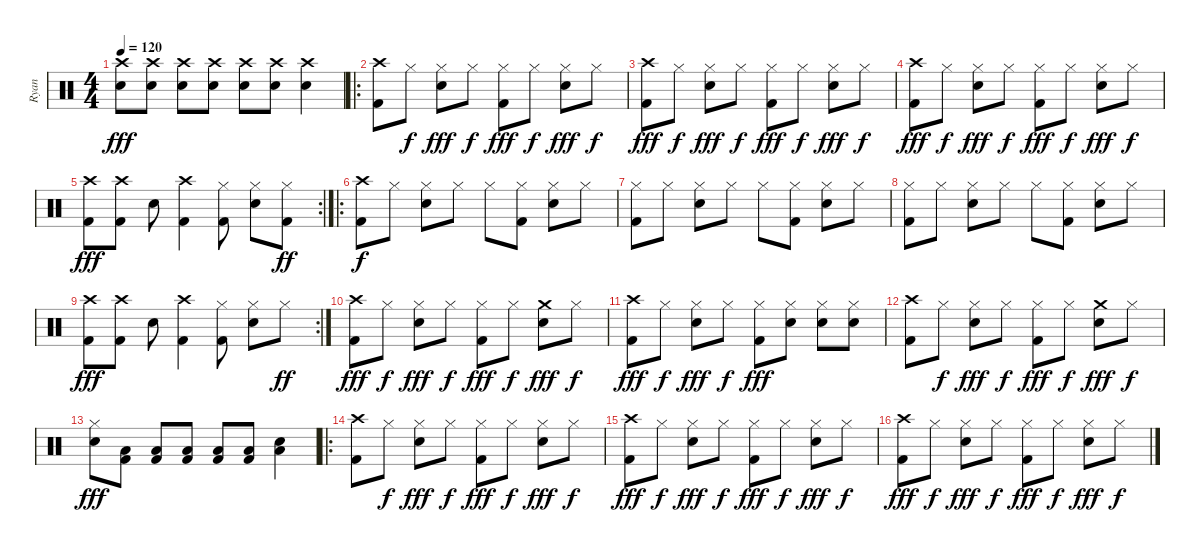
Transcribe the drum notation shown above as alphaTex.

\track ("Ryan" "Ryan") {instrument percussion}
\staff {score}
\articulation defaults
\ts (4 4)
\tempo 120
\clef neutral
\ks c
("Crash high (hit)" "Snare (hit) 2").8{dy fff} ("Crash high (hit)" "Snare (hit) 2").8 ("Crash high (hit)" "Snare (hit) 2").8 ("Crash high (hit)" "Snare (hit) 2").8 ("Crash high (hit)" "Snare (hit) 2").8 ("Crash high (hit)" "Snare (hit) 2").8 ("Crash high (hit)" "Snare (hit) 2").4 |
\ro
("Crash high (hit)" "Kick (hit) 2").8 "Hi-Hat (closed)".8{dy f} ("Hi-Hat (closed)" "Snare (hit) 2").8{dy fff} "Hi-Hat (closed)".8{dy f} ("Hi-Hat (closed)" "Kick (hit) 2").8{dy fff} "Hi-Hat (closed)".8{dy f} ("Hi-Hat (closed)" "Snare (hit) 2").8{dy fff} "Hi-Hat (closed)".8{dy f} |
("Crash high (hit)" "Kick (hit) 2").8{dy fff} "Hi-Hat (closed)".8{dy f} ("Hi-Hat (closed)" "Snare (hit) 2").8{dy fff} "Hi-Hat (closed)".8{dy f} ("Hi-Hat (closed)" "Kick (hit) 2").8{dy fff} "Hi-Hat (closed)".8{dy f} ("Hi-Hat (closed)" "Snare (hit) 2").8{dy fff} "Hi-Hat (closed)".8{dy f} |
("Crash high (hit)" "Kick (hit) 2").8{dy fff} "Hi-Hat (closed)".8{dy f} ("Hi-Hat (closed)" "Snare (hit) 2").8{dy fff} "Hi-Hat (closed)".8{dy f} ("Hi-Hat (closed)" "Kick (hit) 2").8{dy fff} "Hi-Hat (closed)".8{dy f} ("Hi-Hat (closed)" "Snare (hit) 2").8{dy fff} "Hi-Hat (closed)".8{dy f} |
\rc 2
("Crash high (hit)" "Kick (hit) 2").8{dy fff} ("Crash high (hit)" "Kick (hit) 2").8 "Snare (hit) 2".8 ("Crash high (hit)" "Kick (hit) 2").4 ("Hi-Hat (closed)" "Kick (hit) 2").8 ("Hi-Hat (closed)" "Snare (hit) 2").8 ("Hi-Hat (closed)" "Kick (hit) 2").8{dy ff} |
\ro
("Crash high (hit)" "Kick (hit) 2").8{dy f} "Hi-Hat (closed)".8 ("Hi-Hat (closed)" "Snare (hit) 2").8 "Hi-Hat (closed)".8 "Hi-Hat (closed)".8 ("Hi-Hat (closed)" "Kick (hit) 2").8 ("Hi-Hat (closed)" "Snare (hit) 2").8 "Hi-Hat (closed)".8 |
("Hi-Hat (closed)" "Kick (hit) 2").8 "Hi-Hat (closed)".8 ("Hi-Hat (closed)" "Snare (hit) 2").8 "Hi-Hat (closed)".8 "Hi-Hat (closed)".8 ("Hi-Hat (closed)" "Kick (hit) 2").8 ("Hi-Hat (closed)" "Snare (hit) 2").8 "Hi-Hat (closed)".8 |
("Hi-Hat (closed)" "Kick (hit) 2").8 "Hi-Hat (closed)".8 ("Hi-Hat (closed)" "Snare (hit) 2").8 "Hi-Hat (closed)".8 "Hi-Hat (closed)".8 ("Hi-Hat (closed)" "Kick (hit) 2").8 ("Hi-Hat (closed)" "Snare (hit) 2").8 "Hi-Hat (closed)".8 |
\rc 2
("Crash high (hit)" "Kick (hit) 2").8{dy fff} ("Crash high (hit)" "Kick (hit) 2").8 "Snare (hit) 2".8 ("Crash high (hit)" "Kick (hit) 2").4 ("Hi-Hat (closed)" "Kick (hit) 2").8 ("Hi-Hat (closed)" "Snare (hit) 2").8 "Hi-Hat (closed)".8{dy ff} |
("Crash high (hit)" "Kick (hit) 2").8{dy fff} "Hi-Hat (closed)".8{dy f} ("Hi-Hat (closed)" "Snare (hit) 2").8{dy fff} "Hi-Hat (closed)".8{dy f} ("Hi-Hat (closed)" "Kick (hit) 2").8{dy fff} "Hi-Hat (closed)".8{dy f} ("Crash medium (hit)" "Snare (hit) 2").8{dy fff} "Hi-Hat (closed)".8{dy f} |
("Crash high (hit)" "Kick (hit) 2").8{dy fff} "Hi-Hat (closed)".8{dy f} ("Hi-Hat (closed)" "Snare (hit) 2").8{dy fff} "Hi-Hat (closed)".8{dy f} ("Hi-Hat (closed)" "Kick (hit) 2").8{dy fff} ("Hi-Hat (closed)" "Snare (hit) 2").8 ("Hi-Hat (closed)" "Snare (hit) 2").8 ("Hi-Hat (closed)" "Snare (hit) 2").8 |
("Crash high (hit)" "Kick (hit) 2").8 "Hi-Hat (closed)".8{dy f} ("Hi-Hat (closed)" "Snare (hit) 2").8{dy fff} "Hi-Hat (closed)".8{dy f} ("Hi-Hat (closed)" "Kick (hit) 2").8{dy fff} "Hi-Hat (closed)".8{dy f} ("Crash medium (hit)" "Snare (hit) 2").8{dy fff} "Hi-Hat (closed)".8{dy f} |
("Hi-Hat (closed)" "Snare (hit) 2").8{dy fff} ("Low Floor Tom (hit)" "Kick (hit) 2").8 ("Low Floor Tom (hit)" "Kick (hit) 2").8 ("Low Floor Tom (hit)" "Kick (hit) 2").8 ("Low Floor Tom (hit)" "Kick (hit) 2").8 ("Low Floor Tom (hit)" "Kick (hit) 2").8 ("Low Floor Tom (hit)" "Snare (hit) 2").4 |
\ro
("Crash high (hit)" "Kick (hit) 2").8 "Hi-Hat (closed)".8{dy f} ("Hi-Hat (closed)" "Snare (hit) 2").8{dy fff} "Hi-Hat (closed)".8{dy f} ("Hi-Hat (closed)" "Kick (hit) 2").8{dy fff} "Hi-Hat (closed)".8{dy f} ("Hi-Hat (closed)" "Snare (hit) 2").8{dy fff} "Hi-Hat (closed)".8{dy f} |
("Crash high (hit)" "Kick (hit) 2").8{dy fff} "Hi-Hat (closed)".8{dy f} ("Hi-Hat (closed)" "Snare (hit) 2").8{dy fff} "Hi-Hat (closed)".8{dy f} ("Hi-Hat (closed)" "Kick (hit) 2").8{dy fff} "Hi-Hat (closed)".8{dy f} ("Hi-Hat (closed)" "Snare (hit) 2").8{dy fff} "Hi-Hat (closed)".8{dy f} |
("Crash high (hit)" "Kick (hit) 2").8{dy fff} "Hi-Hat (closed)".8{dy f} ("Hi-Hat (closed)" "Snare (hit) 2").8{dy fff} "Hi-Hat (closed)".8{dy f} ("Hi-Hat (closed)" "Kick (hit) 2").8{dy fff} "Hi-Hat (closed)".8{dy f} ("Hi-Hat (closed)" "Snare (hit) 2").8{dy fff} "Hi-Hat (closed)".8{dy f}
